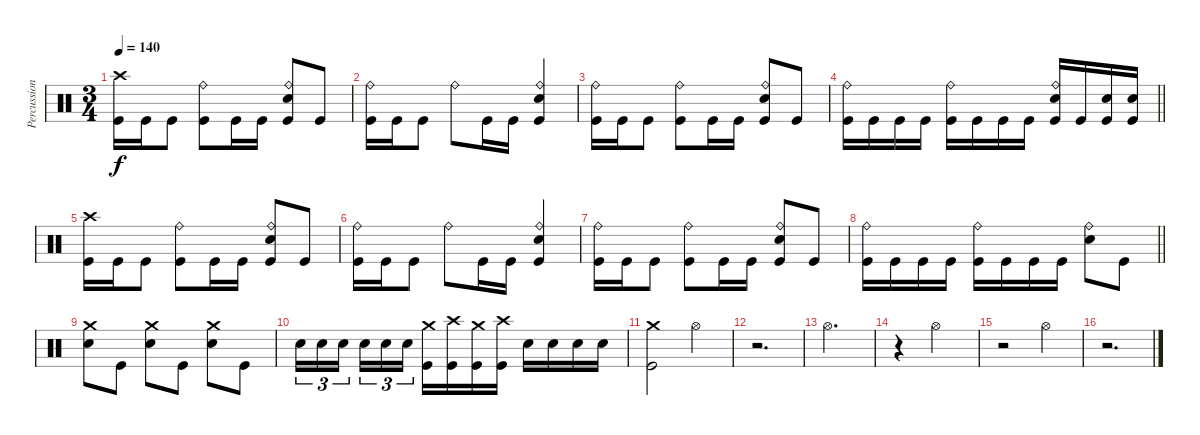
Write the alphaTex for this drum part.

\track ("Percussion" "Percussion") {instrument percussion}
\staff {score}
\articulation defaults
\ts (3 4)
\tempo 140
\clef neutral
\ks c
("Crash high (hit)" "Kick (hit)").16{dy f} "Kick (hit)".16 "Kick (hit)".8 ("Ride (bell)" "Kick (hit)").8 "Kick (hit)".16 "Kick (hit)".16 ("Ride (bell)" "Electric Snare (hit)" "Kick (hit)").8 "Kick (hit)".8 |
("Ride (bell)" "Kick (hit)").16 "Kick (hit)".16 "Kick (hit)".8 "Ride (bell)".8 "Kick (hit)".16 "Kick (hit)".16 ("Ride (bell)" "Electric Snare (hit)" "Kick (hit)").4 |
("Ride (bell)" "Kick (hit)").16 "Kick (hit)".16 "Kick (hit)".8 ("Ride (bell)" "Kick (hit)").8 "Kick (hit)".16 "Kick (hit)".16 ("Ride (bell)" "Electric Snare (hit)" "Kick (hit)").8 "Kick (hit)".8 |
\barLineRight lightlight
("Ride (bell)" "Kick (hit)").16 "Kick (hit)".16 "Kick (hit)".16 "Kick (hit)".16 ("Ride (bell)" "Kick (hit)").16 "Kick (hit)".16 "Kick (hit)".16 "Kick (hit)".16 ("Ride (bell)" "Electric Snare (hit)" "Kick (hit)").16 "Kick (hit)".16 ("Electric Snare (hit)" "Kick (hit)").16 ("Electric Snare (hit)" "Kick (hit)").16 |
("Crash high (hit)" "Kick (hit)").16 "Kick (hit)".16 "Kick (hit)".8 ("Ride (bell)" "Kick (hit)").8 "Kick (hit)".16 "Kick (hit)".16 ("Ride (bell)" "Electric Snare (hit)" "Kick (hit)").8 "Kick (hit)".8 |
("Ride (bell)" "Kick (hit)").16 "Kick (hit)".16 "Kick (hit)".8 "Ride (bell)".8 "Kick (hit)".16 "Kick (hit)".16 ("Ride (bell)" "Electric Snare (hit)" "Kick (hit)").4 |
("Ride (bell)" "Kick (hit)").16 "Kick (hit)".16 "Kick (hit)".8 ("Ride (bell)" "Kick (hit)").8 "Kick (hit)".16 "Kick (hit)".16 ("Ride (bell)" "Electric Snare (hit)" "Kick (hit)").8 "Kick (hit)".8 |
\barLineRight lightlight
("Ride (bell)" "Kick (hit)").16 "Kick (hit)".16 "Kick (hit)".16 "Kick (hit)".16 ("Ride (bell)" "Kick (hit)").16 "Kick (hit)".16 "Kick (hit)".16 "Kick (hit)".16 ("Ride (bell)" "Electric Snare (hit)").8 "Kick (hit)".8 |
("Crash medium (hit)" "Electric Snare (hit)").8 "Kick (hit)".8 ("Crash medium (hit)" "Electric Snare (hit)").8 "Kick (hit)".8 ("Crash medium (hit)" "Electric Snare (hit)").8 "Kick (hit)".8 |
"Electric Snare (hit)".16{tu (3 2)} "Electric Snare (hit)".16{tu (3 2)} "Electric Snare (hit)".16{tu (3 2) beam splitsecondary} "Electric Snare (hit)".16{tu (3 2)} "Electric Snare (hit)".16{tu (3 2)} "Electric Snare (hit)".16{tu (3 2)} ("Crash medium (hit)" "Kick (hit)").16 ("Crash high (hit)" "Kick (hit)").16 ("Crash medium (hit)" "Kick (hit)").16 ("Crash high (hit)" "Kick (hit)").16 "Electric Snare (hit)".16 "Electric Snare (hit)".16 "Electric Snare (hit)".16 "Electric Snare (hit)".16 |
("Crash medium (hit)" "Kick (hit)").2 "Hi-Hat (open)".4 |
r.2{d} |
"Hi-Hat (open)".2{d} |
r.4 "Hi-Hat (open)".2 |
r.2 "Hi-Hat (open)".4 |
r.2{d}
